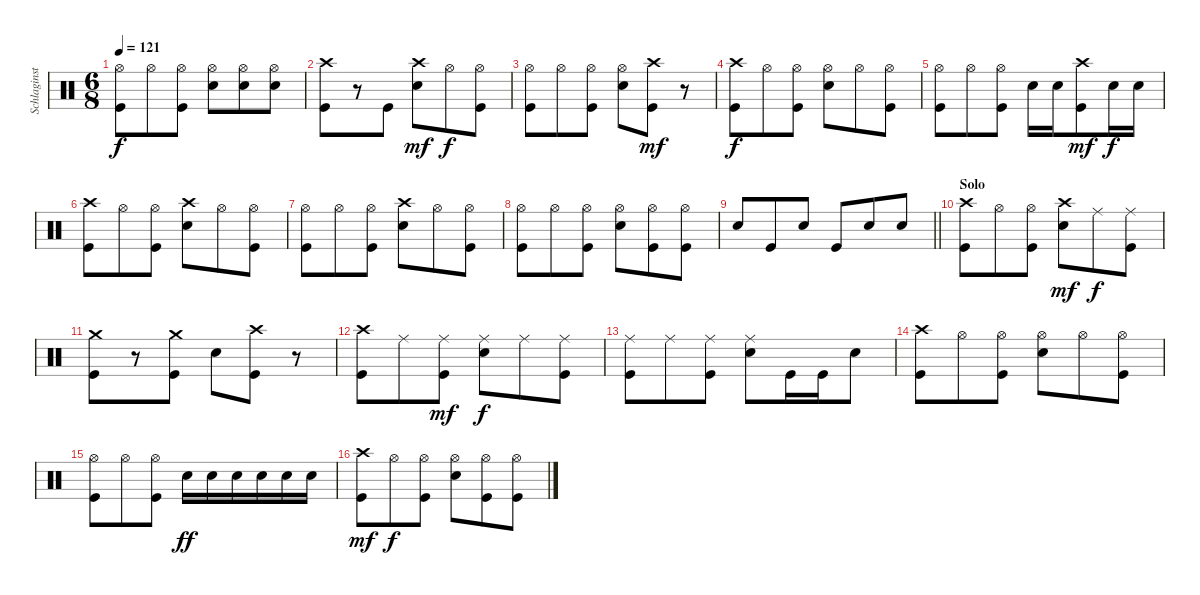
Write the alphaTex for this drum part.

\track ("Schlaginstrumente - Auswahl" "Schlaginst") {instrument percussion}
\staff {score}
\articulation defaults
\ts (6 8)
\tempo 121
\clef neutral
\ks c
("Hi-Hat (open)" "Kick (hit)").8{dy f} "Hi-Hat (open)".8 ("Hi-Hat (open)" "Kick (hit)").8 ("Hi-Hat (open)" "Snare (hit) 2").8 ("Hi-Hat (open)" "Snare (hit) 2").8 ("Hi-Hat (open)" "Snare (hit) 2").8 |
("Crash high (hit)" "Kick (hit)").8 r.8 "Kick (hit)".8 ("Crash high (hit)" "Snare (hit) 2").8{dy mf} "Hi-Hat (open)".8{dy f} ("Hi-Hat (open)" "Kick (hit)").8 |
("Hi-Hat (open)" "Kick (hit)").8 "Hi-Hat (open)".8 ("Hi-Hat (open)" "Kick (hit)").8 ("Hi-Hat (open)" "Snare (hit) 2").8 ("Crash high (hit)" "Kick (hit)").8{dy mf} r.8 |
("Crash high (hit)" "Kick (hit)").8{dy f} "Hi-Hat (open)".8 ("Hi-Hat (open)" "Kick (hit)").8 ("Hi-Hat (open)" "Snare (hit) 2").8 "Hi-Hat (open)".8 ("Hi-Hat (open)" "Kick (hit)").8 |
("Hi-Hat (open)" "Kick (hit)").8 "Hi-Hat (open)".8 ("Hi-Hat (open)" "Kick (hit)").8 "Snare (hit) 2".16 "Snare (hit) 2".16 ("Crash high (hit)" "Kick (hit)").8{dy mf} "Snare (hit) 2".16{dy f} "Snare (hit) 2".16 |
("Crash high (hit)" "Kick (hit)").8 "Hi-Hat (open)".8 ("Hi-Hat (open)" "Kick (hit)").8 ("Crash high (hit)" "Snare (hit) 2").8 "Hi-Hat (open)".8 ("Hi-Hat (open)" "Kick (hit)").8 |
("Hi-Hat (open)" "Kick (hit)").8 "Hi-Hat (open)".8 ("Hi-Hat (open)" "Kick (hit)").8 ("Crash high (hit)" "Snare (hit) 2").8 "Hi-Hat (open)".8 ("Hi-Hat (open)" "Kick (hit)").8 |
("Hi-Hat (open)" "Kick (hit)").8 "Hi-Hat (open)".8 ("Hi-Hat (open)" "Kick (hit)").8 ("Hi-Hat (open)" "Snare (hit) 2").8 ("Hi-Hat (open)" "Kick (hit)").8 ("Hi-Hat (open)" "Kick (hit)").8 |
\barLineRight lightlight "Snare (hit) 2".8 "Kick (hit)".8 "Snare (hit) 2".8 "Kick (hit)".8 "Snare (hit) 2".8 "Snare (hit) 2".8
|
\section ("" "Solo")
("Crash high (hit)" "Kick (hit)").8 "Hi-Hat (open)".8 ("Hi-Hat (open)" "Kick (hit)").8 ("Crash high (hit)" "Snare (hit) 2").8{dy mf} "Ride (middle)".8{dy f} ("Ride (middle)" "Kick (hit)").8 |
("Crash medium (hit)" "Kick (hit)").8 r.8 ("Crash medium (hit)" "Kick (hit)").8 "Snare (hit) 2".8 ("Crash high (hit)" "Kick (hit)").8 r.8 |
("Crash high (hit)" "Kick (hit)").8 "Ride (middle)".8 ("Ride (middle)" "Kick (hit)").8{dy mf} ("Ride (middle)" "Snare (hit) 2").8{dy f} "Ride (middle)".8 ("Ride (middle)" "Kick (hit)").8 |
("Kick (hit)" "Ride (middle)").8 "Ride (middle)".8 ("Ride (middle)" "Kick (hit)").8 ("Snare (hit) 2" "Ride (middle)").8 "Kick (hit)".16 "Kick (hit)".16 "Snare (hit) 2".8 |
("Crash high (hit)" "Kick (hit)").8 "Hi-Hat (open)".8 ("Hi-Hat (open)" "Kick (hit)").8 ("Hi-Hat (open)" "Snare (hit) 2").8 "Hi-Hat (open)".8 ("Hi-Hat (open)" "Kick (hit)").8 |
("Hi-Hat (open)" "Kick (hit)").8 "Hi-Hat (open)".8 ("Hi-Hat (open)" "Kick (hit)").8 "Snare (hit) 2".16{dy ff} "Snare (hit) 2".16 "Snare (hit) 2".16 "Snare (hit) 2".16 "Snare (hit) 2".16 "Snare (hit) 2".16 |
("Crash high (hit)" "Kick (hit)").8{dy mf} "Hi-Hat (open)".8{dy f} ("Hi-Hat (open)" "Kick (hit)").8 ("Hi-Hat (open)" "Snare (hit) 2").8 ("Hi-Hat (open)" "Kick (hit)").8 ("Hi-Hat (open)" "Kick (hit)").8
